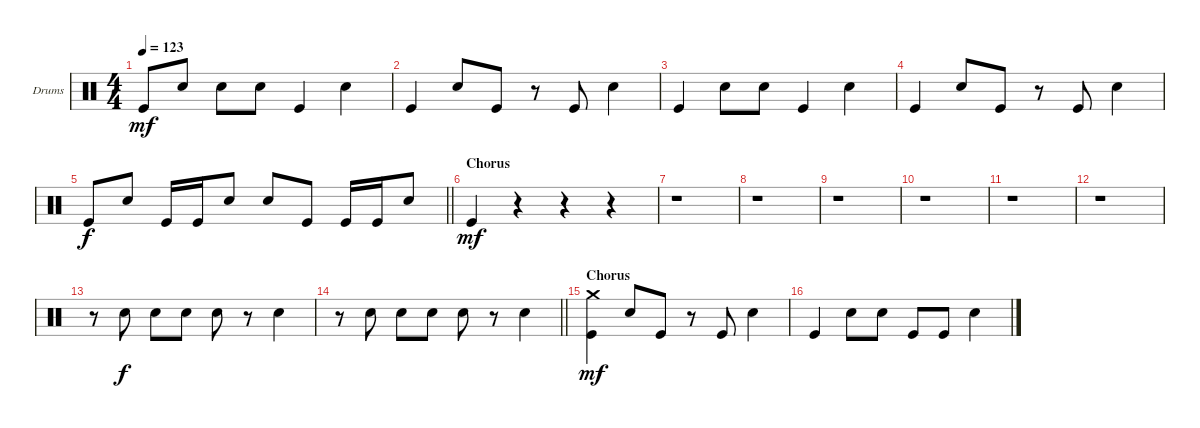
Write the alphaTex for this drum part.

\defaultSystemsLayout 4
\bracketExtendMode groupsimilarinstruments
\firstSystemTrackNameOrientation horizontal
\otherSystemsTrackNameOrientation horizontal
\track ("Drumkit" "Drums") {instrument percussion}
\staff {score}
\articulation defaults
\ts (4 4)
\tempo 123
\clef neutral
\ks c "Kick (hit)".8{dy mf} "Snare (hit) 2".8 "Snare (hit) 2".8 "Snare (hit) 2".8 "Kick (hit)".4 "Snare (hit) 2".4
|
"Kick (hit)".4 "Snare (hit) 2".8 "Kick (hit)".8 r.8 "Kick (hit)".8 "Snare (hit) 2".4 |
"Kick (hit)".4 "Snare (hit) 2".8 "Snare (hit) 2".8 "Kick (hit)".4 "Snare (hit) 2".4 |
"Kick (hit)".4 "Snare (hit) 2".8 "Kick (hit)".8 r.8 "Kick (hit)".8 "Snare (hit) 2".4 |
\barLineRight lightlight "Kick (hit)".8{dy f} "Snare (hit) 2".8 "Kick (hit)".16 "Kick (hit)".16 "Snare (hit) 2".8 "Snare (hit) 2".8 "Kick (hit)".8 "Kick (hit)".16 "Kick (hit)".16 "Snare (hit) 2".8
|
\section ("" "Chorus")
"Kick (hit)".4{dy mf} r.4 r.4 r.4 |
r.1 |
r.1 |
r.1 |
r.1 |
r.1 |
r.1 |
r.8 "Snare (hit) 2".8{dy f} "Snare (hit) 2".8 "Snare (hit) 2".8 "Snare (hit) 2".8 r.8 "Snare (hit) 2".4 |
\barLineRight lightlight
r.8 "Snare (hit) 2".8 "Snare (hit) 2".8 "Snare (hit) 2".8 "Snare (hit) 2".8 r.8 "Snare (hit) 2".4 |
\section ("" "Chorus")
("Kick (hit)" "Crash medium (hit)").4{dy mf} "Snare (hit) 2".8 "Kick (hit)".8 r.8 "Kick (hit)".8 "Snare (hit) 2".4 |
"Kick (hit)".4 "Snare (hit) 2".8 "Snare (hit) 2".8 "Kick (hit)".8 "Kick (hit)".8 "Snare (hit) 2".4
